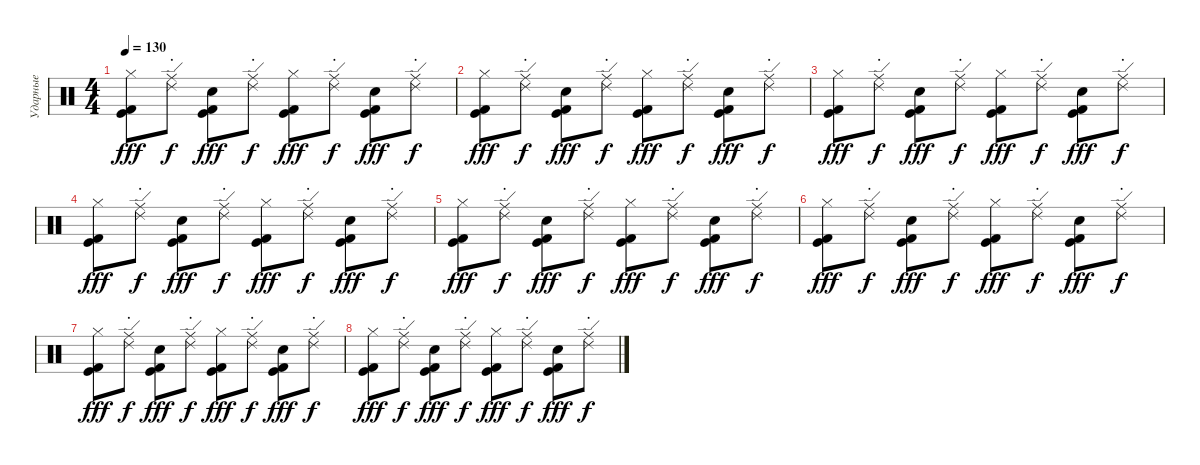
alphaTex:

\track ("Ударные" "Ударные") {instrument percussion}
\staff {score}
\articulation defaults
\ts (4 4)
\tempo 130
\clef neutral
\ks c
("Hi-Hat (closed)" "Kick (hit) 2" "Kick (hit)").8{dy fff} ("Ride (edge) 2" "Ride (middle)"{st}).8{dy f} ("Hand Clap (hit)" "Kick (hit) 2" "Kick (hit)").8{dy fff} ("Ride (edge) 2" "Ride (middle)"{st}).8{dy f} ("Hi-Hat (closed)" "Kick (hit) 2" "Kick (hit)").8{dy fff} ("Ride (edge) 2" "Ride (middle)"{st}).8{dy f} ("Hand Clap (hit)" "Kick (hit) 2" "Kick (hit)").8{dy fff} ("Ride (edge) 2" "Ride (middle)"{st}).8{dy f} |
("Hi-Hat (closed)" "Kick (hit) 2" "Kick (hit)").8{dy fff} ("Ride (edge) 2" "Ride (middle)"{st}).8{dy f} ("Hand Clap (hit)" "Kick (hit) 2" "Kick (hit)").8{dy fff} ("Ride (edge) 2" "Ride (middle)"{st}).8{dy f} ("Hi-Hat (closed)" "Kick (hit) 2" "Kick (hit)").8{dy fff} ("Ride (edge) 2" "Ride (middle)"{st}).8{dy f} ("Hand Clap (hit)" "Kick (hit) 2" "Kick (hit)").8{dy fff} ("Ride (edge) 2" "Ride (middle)"{st}).8{dy f} |
("Hi-Hat (closed)" "Kick (hit) 2" "Kick (hit)").8{dy fff} ("Ride (edge) 2" "Ride (middle)"{st}).8{dy f} ("Hand Clap (hit)" "Kick (hit) 2" "Kick (hit)").8{dy fff} ("Ride (edge) 2" "Ride (middle)"{st}).8{dy f} ("Hi-Hat (closed)" "Kick (hit) 2" "Kick (hit)").8{dy fff} ("Ride (edge) 2" "Ride (middle)"{st}).8{dy f} ("Hand Clap (hit)" "Kick (hit) 2" "Kick (hit)").8{dy fff} ("Ride (edge) 2" "Ride (middle)"{st}).8{dy f} |
("Hi-Hat (closed)" "Kick (hit) 2" "Kick (hit)").8{dy fff} ("Ride (edge) 2" "Ride (middle)"{st}).8{dy f} ("Hand Clap (hit)" "Kick (hit) 2" "Kick (hit)").8{dy fff} ("Ride (edge) 2" "Ride (middle)"{st}).8{dy f} ("Hi-Hat (closed)" "Kick (hit) 2" "Kick (hit)").8{dy fff} ("Ride (edge) 2" "Ride (middle)"{st}).8{dy f} ("Hand Clap (hit)" "Kick (hit) 2" "Kick (hit)").8{dy fff} ("Ride (edge) 2" "Ride (middle)"{st}).8{dy f} |
("Hi-Hat (closed)" "Kick (hit) 2" "Kick (hit)").8{dy fff} ("Ride (edge) 2" "Ride (middle)"{st}).8{dy f} ("Hand Clap (hit)" "Kick (hit) 2" "Kick (hit)").8{dy fff} ("Ride (edge) 2" "Ride (middle)"{st}).8{dy f} ("Hi-Hat (closed)" "Kick (hit) 2" "Kick (hit)").8{dy fff} ("Ride (edge) 2" "Ride (middle)"{st}).8{dy f} ("Hand Clap (hit)" "Kick (hit) 2" "Kick (hit)").8{dy fff} ("Ride (edge) 2" "Ride (middle)"{st}).8{dy f} |
("Hi-Hat (closed)" "Kick (hit) 2" "Kick (hit)").8{dy fff} ("Ride (edge) 2" "Ride (middle)"{st}).8{dy f} ("Hand Clap (hit)" "Kick (hit) 2" "Kick (hit)").8{dy fff} ("Ride (edge) 2" "Ride (middle)"{st}).8{dy f} ("Hi-Hat (closed)" "Kick (hit) 2" "Kick (hit)").8{dy fff} ("Ride (edge) 2" "Ride (middle)"{st}).8{dy f} ("Hand Clap (hit)" "Kick (hit) 2" "Kick (hit)").8{dy fff} ("Ride (edge) 2" "Ride (middle)"{st}).8{dy f} |
("Hi-Hat (closed)" "Kick (hit) 2" "Kick (hit)").8{dy fff} ("Ride (edge) 2" "Ride (middle)"{st}).8{dy f} ("Hand Clap (hit)" "Kick (hit) 2" "Kick (hit)").8{dy fff} ("Ride (edge) 2" "Ride (middle)"{st}).8{dy f} ("Hi-Hat (closed)" "Kick (hit) 2" "Kick (hit)").8{dy fff} ("Ride (edge) 2" "Ride (middle)"{st}).8{dy f} ("Hand Clap (hit)" "Kick (hit) 2" "Kick (hit)").8{dy fff} ("Ride (edge) 2" "Ride (middle)"{st}).8{dy f} |
("Hi-Hat (closed)" "Kick (hit) 2" "Kick (hit)").8{dy fff} ("Ride (edge) 2" "Ride (middle)"{st}).8{dy f} ("Hand Clap (hit)" "Kick (hit) 2" "Kick (hit)").8{dy fff} ("Ride (edge) 2" "Ride (middle)"{st}).8{dy f} ("Hi-Hat (closed)" "Kick (hit) 2" "Kick (hit)").8{dy fff} ("Ride (edge) 2" "Ride (middle)"{st}).8{dy f} ("Hand Clap (hit)" "Kick (hit) 2" "Kick (hit)").8{dy fff} ("Ride (edge) 2" "Ride (middle)"{st}).8{dy f}
